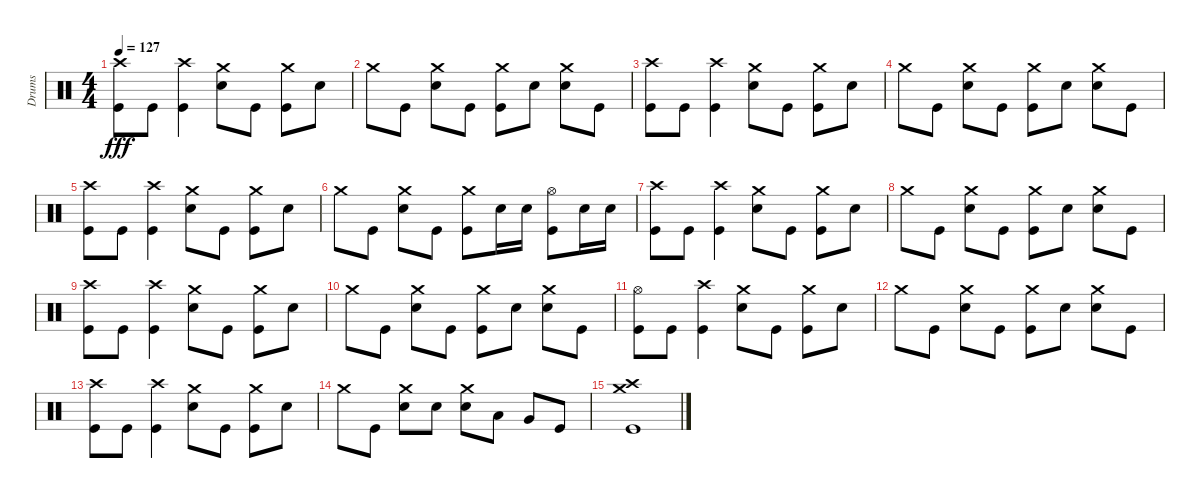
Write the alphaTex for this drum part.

\track ("Drums" "Drums") {instrument percussion}
\staff {score}
\articulation defaults
\ts (4 4)
\tempo 127
\clef neutral
\ks c
("Crash high (hit)" "Kick (hit)").8{dy fff} "Kick (hit)".8 ("Crash high (hit)" "Kick (hit)").4 ("Crash medium (hit)" "Snare (hit) 2").8 "Kick (hit)".8 ("Crash medium (hit)" "Kick (hit)").8 "Snare (hit) 2".8 |
"Crash medium (hit)".8 "Kick (hit)".8 ("Crash medium (hit)" "Snare (hit) 2").8 "Kick (hit)".8 ("Crash medium (hit)" "Kick (hit)").8 "Snare (hit) 2".8 ("Crash medium (hit)" "Snare (hit) 2").8 "Kick (hit)".8 |
("Crash high (hit)" "Kick (hit)").8 "Kick (hit)".8 ("Crash high (hit)" "Kick (hit)").4 ("Crash medium (hit)" "Snare (hit) 2").8 "Kick (hit)".8 ("Crash medium (hit)" "Kick (hit)").8 "Snare (hit) 2".8 |
"Crash medium (hit)".8 "Kick (hit)".8 ("Crash medium (hit)" "Snare (hit) 2").8 "Kick (hit)".8 ("Crash medium (hit)" "Kick (hit)").8 "Snare (hit) 2".8 ("Crash medium (hit)" "Snare (hit) 2").8 "Kick (hit)".8 |
("Crash high (hit)" "Kick (hit)").8 "Kick (hit)".8 ("Crash high (hit)" "Kick (hit)").4 ("Crash medium (hit)" "Snare (hit) 2").8 "Kick (hit)".8 ("Crash medium (hit)" "Kick (hit)").8 "Snare (hit) 2".8 |
"Crash medium (hit)".8 "Kick (hit)".8 ("Crash medium (hit)" "Snare (hit) 2").8 "Kick (hit)".8 ("Crash medium (hit)" "Kick (hit)").8 "Snare (hit) 2".16 "Snare (hit) 2".16 ("Hi-Hat (open)" "Kick (hit)").8 "Snare (hit) 2".16 "Snare (hit) 2".16 |
("Crash high (hit)" "Kick (hit)").8 "Kick (hit)".8 ("Crash high (hit)" "Kick (hit)").4 ("Crash medium (hit)" "Snare (hit) 2").8 "Kick (hit)".8 ("Crash medium (hit)" "Kick (hit)").8 "Snare (hit) 2".8 |
"Crash medium (hit)".8 "Kick (hit)".8 ("Crash medium (hit)" "Snare (hit) 2").8 "Kick (hit)".8 ("Crash medium (hit)" "Kick (hit)").8 "Snare (hit) 2".8 ("Crash medium (hit)" "Snare (hit) 2").8 "Kick (hit)".8 |
("Crash high (hit)" "Kick (hit)").8 "Kick (hit)".8 ("Crash high (hit)" "Kick (hit)").4 ("Crash medium (hit)" "Snare (hit) 2").8 "Kick (hit)".8 ("Crash medium (hit)" "Kick (hit)").8 "Snare (hit) 2".8 |
"Crash medium (hit)".8 "Kick (hit)".8 ("Crash medium (hit)" "Snare (hit) 2").8 "Kick (hit)".8 ("Crash medium (hit)" "Kick (hit)").8 "Snare (hit) 2".8 ("Crash medium (hit)" "Snare (hit) 2").8 "Kick (hit)".8 |
("Hi-Hat (open)" "Kick (hit)").8 "Kick (hit)".8 ("Crash high (hit)" "Kick (hit)").4 ("Crash medium (hit)" "Snare (hit) 2").8 "Kick (hit)".8 ("Crash medium (hit)" "Kick (hit)").8 "Snare (hit) 2".8 |
"Crash medium (hit)".8 "Kick (hit)".8 ("Crash medium (hit)" "Snare (hit) 2").8 "Kick (hit)".8 ("Crash medium (hit)" "Kick (hit)").8 "Snare (hit) 2".8 ("Crash medium (hit)" "Snare (hit) 2").8 "Kick (hit)".8 |
("Crash high (hit)" "Kick (hit)").8 "Kick (hit)".8 ("Crash high (hit)" "Kick (hit)").4 ("Crash medium (hit)" "Snare (hit) 2").8 "Kick (hit)".8 ("Crash medium (hit)" "Kick (hit)").8 "Snare (hit) 2".8 |
"Crash medium (hit)".8 "Kick (hit)".8 ("Crash medium (hit)" "Snare (hit) 2").8 "Snare (hit) 2".8 ("Crash medium (hit)" "Snare (hit) 2").8 "Low Tom (hit)".8 "Very Low Tom (hit)".8 "Kick (hit)".8 |
("Crash medium (hit)" "Crash high (hit)" "Kick (hit)").1
